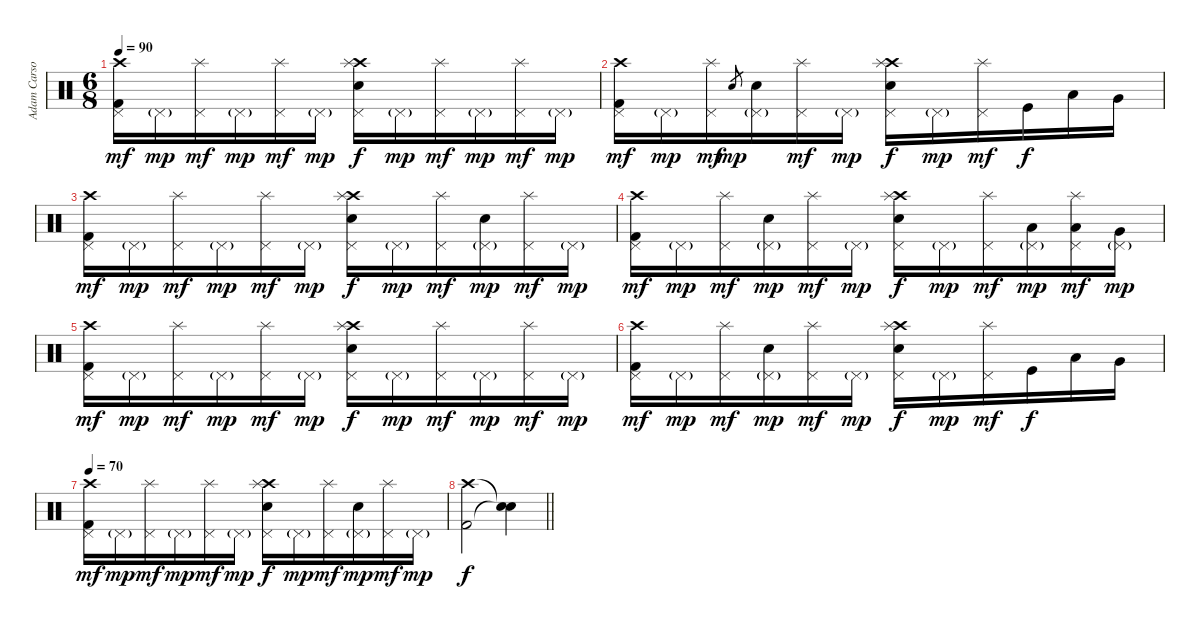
\track ("Adam Carson" "Adam Carso") {instrument percussion}
\staff {score}
\articulation defaults
\ts (6 8)
\tempo 90
\clef neutral
\ks c
("Crash high (hit)" "Pedal Hi-Hat (hit)" "Kick (hit) 2").16{dy mf} "Pedal Hi-Hat (hit)"{g}.16{dy mp} ("Pedal Hi-Hat (hit)" "Splash (hit)").16{dy mf} "Pedal Hi-Hat (hit)"{g}.16{dy mp} ("Pedal Hi-Hat (hit)" "Splash (hit)").16{dy mf} "Pedal Hi-Hat (hit)"{g}.16{dy mp} ("Crash high (hit)" "Pedal Hi-Hat (hit)" "Splash (hit)" "Snare (hit) 2").16{dy f} "Pedal Hi-Hat (hit)"{g}.16{dy mp} ("Pedal Hi-Hat (hit)" "Splash (hit)").16{dy mf} "Pedal Hi-Hat (hit)"{g}.16{dy mp} ("Pedal Hi-Hat (hit)" "Splash (hit)").16{dy mf} "Pedal Hi-Hat (hit)"{g}.16{dy mp} |
("Crash high (hit)" "Pedal Hi-Hat (hit)" "Kick (hit) 2").16{dy mf} "Pedal Hi-Hat (hit)"{g}.16{dy mp} ("Pedal Hi-Hat (hit)" "Splash (hit)").16{dy mf} "Snare (hit) 2".8{gr dy mp} ("Pedal Hi-Hat (hit)"{g} "Snare (hit) 2").16 ("Pedal Hi-Hat (hit)" "Splash (hit)").16{dy mf} "Pedal Hi-Hat (hit)"{g}.16{dy mp} ("Crash high (hit)" "Pedal Hi-Hat (hit)" "Splash (hit)" "Snare (hit) 2").16{dy f} "Pedal Hi-Hat (hit)"{g}.16{dy mp} ("Pedal Hi-Hat (hit)" "Splash (hit)").16{dy mf} "Kick (hit)".16{dy f} "Low Floor Tom (hit)".16 "Very Low Tom (hit)".16 |
("Crash high (hit)" "Pedal Hi-Hat (hit)" "Kick (hit) 2").16{dy mf} "Pedal Hi-Hat (hit)"{g}.16{dy mp} ("Pedal Hi-Hat (hit)" "Splash (hit)").16{dy mf} "Pedal Hi-Hat (hit)"{g}.16{dy mp} ("Pedal Hi-Hat (hit)" "Splash (hit)").16{dy mf} "Pedal Hi-Hat (hit)"{g}.16{dy mp} ("Crash high (hit)" "Pedal Hi-Hat (hit)" "Splash (hit)" "Snare (hit) 2").16{dy f} "Pedal Hi-Hat (hit)"{g}.16{dy mp} ("Pedal Hi-Hat (hit)" "Splash (hit)").16{dy mf} ("Pedal Hi-Hat (hit)"{g} "Snare (hit) 2").16{dy mp} ("Pedal Hi-Hat (hit)" "Splash (hit)").16{dy mf} "Pedal Hi-Hat (hit)"{g}.16{dy mp} |
("Crash high (hit)" "Pedal Hi-Hat (hit)" "Kick (hit) 2").16{dy mf} "Pedal Hi-Hat (hit)"{g}.16{dy mp} ("Pedal Hi-Hat (hit)" "Splash (hit)").16{dy mf} ("Pedal Hi-Hat (hit)"{g} "Snare (hit) 2").16{dy mp} ("Pedal Hi-Hat (hit)" "Splash (hit)").16{dy mf} "Pedal Hi-Hat (hit)"{g}.16{dy mp} ("Crash high (hit)" "Pedal Hi-Hat (hit)" "Splash (hit)" "Snare (hit) 2").16{dy f} "Pedal Hi-Hat (hit)"{g}.16{dy mp} ("Pedal Hi-Hat (hit)" "Splash (hit)").16{dy mf} ("Pedal Hi-Hat (hit)"{g} "Low Tom (hit)").16{dy mp} ("Pedal Hi-Hat (hit)" "Splash (hit)" "Low Floor Tom (hit)").16{dy mf} ("Pedal Hi-Hat (hit)"{g} "Very Low Tom (hit)").16{dy mp} |
("Crash high (hit)" "Pedal Hi-Hat (hit)" "Kick (hit) 2").16{dy mf} "Pedal Hi-Hat (hit)"{g}.16{dy mp} ("Pedal Hi-Hat (hit)" "Splash (hit)").16{dy mf} "Pedal Hi-Hat (hit)"{g}.16{dy mp} ("Pedal Hi-Hat (hit)" "Splash (hit)").16{dy mf} "Pedal Hi-Hat (hit)"{g}.16{dy mp} ("Crash high (hit)" "Pedal Hi-Hat (hit)" "Splash (hit)" "Snare (hit) 2").16{dy f} "Pedal Hi-Hat (hit)"{g}.16{dy mp} ("Pedal Hi-Hat (hit)" "Splash (hit)").16{dy mf} "Pedal Hi-Hat (hit)"{g}.16{dy mp} ("Pedal Hi-Hat (hit)" "Splash (hit)").16{dy mf} "Pedal Hi-Hat (hit)"{g}.16{dy mp} |
("Crash high (hit)" "Pedal Hi-Hat (hit)" "Kick (hit) 2").16{dy mf} "Pedal Hi-Hat (hit)"{g}.16{dy mp} ("Pedal Hi-Hat (hit)" "Splash (hit)").16{dy mf} ("Pedal Hi-Hat (hit)"{g} "Snare (hit) 2").16{dy mp} ("Pedal Hi-Hat (hit)" "Splash (hit)").16{dy mf} "Pedal Hi-Hat (hit)"{g}.16{dy mp} ("Crash high (hit)" "Pedal Hi-Hat (hit)" "Splash (hit)" "Snare (hit) 2").16{dy f} "Pedal Hi-Hat (hit)"{g}.16{dy mp} ("Pedal Hi-Hat (hit)" "Splash (hit)").16{dy mf} "Kick (hit)".16{dy f} "Low Floor Tom (hit)".16 "Very Low Tom (hit)".16 |
\tempo 70
("Crash high (hit)" "Pedal Hi-Hat (hit)" "Kick (hit) 2").16{dy mf} "Pedal Hi-Hat (hit)"{g}.16{dy mp} ("Pedal Hi-Hat (hit)" "Splash (hit)").16{dy mf} "Pedal Hi-Hat (hit)"{g}.16{dy mp} ("Pedal Hi-Hat (hit)" "Splash (hit)").16{dy mf} "Pedal Hi-Hat (hit)"{g}.16{dy mp} ("Crash high (hit)" "Pedal Hi-Hat (hit)" "Splash (hit)" "Snare (hit) 2").16{dy f} "Pedal Hi-Hat (hit)"{g}.16{dy mp} ("Pedal Hi-Hat (hit)" "Splash (hit)").16{dy mf} ("Pedal Hi-Hat (hit)"{g} "Snare (hit) 2").16{dy mp} ("Pedal Hi-Hat (hit)" "Splash (hit)").16{dy mf} "Pedal Hi-Hat (hit)"{g}.16{dy mp} |
\barLineRight lightlight
("Crash high (hit)" "Kick (hit) 2").2{dy f} ("Snare (hit)"{t} "Snare (hit)"{t}).4
